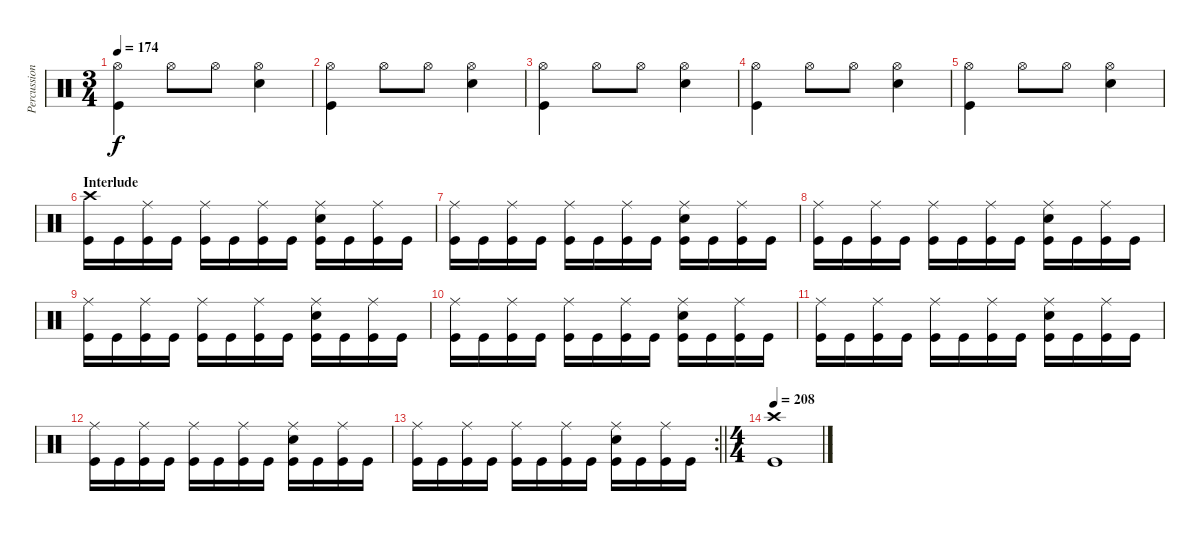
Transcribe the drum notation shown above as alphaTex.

\track ("Percussion" "Percussion") {instrument percussion}
\staff {score}
\articulation defaults
\ts (3 4)
\tempo 174
\clef neutral
\ks c
("Hi-Hat (open)" "Kick (hit)").4{dy f} "Hi-Hat (open)".8 "Hi-Hat (open)".8 ("Hi-Hat (open)" "Electric Snare (hit)").4 |
("Hi-Hat (open)" "Kick (hit)").4 "Hi-Hat (open)".8 "Hi-Hat (open)".8 ("Hi-Hat (open)" "Electric Snare (hit)").4 |
("Hi-Hat (open)" "Kick (hit)").4 "Hi-Hat (open)".8 "Hi-Hat (open)".8 ("Hi-Hat (open)" "Electric Snare (hit)").4 |
("Hi-Hat (open)" "Kick (hit)").4 "Hi-Hat (open)".8 "Hi-Hat (open)".8 ("Hi-Hat (open)" "Electric Snare (hit)").4 |
("Hi-Hat (open)" "Kick (hit)").4 "Hi-Hat (open)".8 "Hi-Hat (open)".8 ("Hi-Hat (open)" "Electric Snare (hit)").4 |
\section ("" "Interlude")
("Crash high (hit)" "Kick (hit)").16 "Kick (hit)".16 ("Ride (middle)" "Kick (hit)").16 "Kick (hit)".16 ("Ride (middle)" "Kick (hit)").16 "Kick (hit)".16 ("Ride (middle)" "Kick (hit)").16 "Kick (hit)".16 ("Ride (middle)" "Electric Snare (hit)" "Kick (hit)").16 "Kick (hit)".16 ("Ride (middle)" "Kick (hit)").16 "Kick (hit)".16 |
("Ride (middle)" "Kick (hit)").16 "Kick (hit)".16 ("Ride (middle)" "Kick (hit)").16 "Kick (hit)".16 ("Ride (middle)" "Kick (hit)").16 "Kick (hit)".16 ("Ride (middle)" "Kick (hit)").16 "Kick (hit)".16 ("Ride (middle)" "Electric Snare (hit)" "Kick (hit)").16 "Kick (hit)".16 ("Ride (middle)" "Kick (hit)").16 "Kick (hit)".16 |
("Ride (middle)" "Kick (hit)").16 "Kick (hit)".16 ("Ride (middle)" "Kick (hit)").16 "Kick (hit)".16 ("Ride (middle)" "Kick (hit)").16 "Kick (hit)".16 ("Ride (middle)" "Kick (hit)").16 "Kick (hit)".16 ("Ride (middle)" "Electric Snare (hit)" "Kick (hit)").16 "Kick (hit)".16 ("Ride (middle)" "Kick (hit)").16 "Kick (hit)".16 |
("Ride (middle)" "Kick (hit)").16 "Kick (hit)".16 ("Ride (middle)" "Kick (hit)").16 "Kick (hit)".16 ("Ride (middle)" "Kick (hit)").16 "Kick (hit)".16 ("Ride (middle)" "Kick (hit)").16 "Kick (hit)".16 ("Ride (middle)" "Electric Snare (hit)" "Kick (hit)").16 "Kick (hit)".16 ("Ride (middle)" "Kick (hit)").16 "Kick (hit)".16 |
("Ride (middle)" "Kick (hit)").16 "Kick (hit)".16 ("Ride (middle)" "Kick (hit)").16 "Kick (hit)".16 ("Ride (middle)" "Kick (hit)").16 "Kick (hit)".16 ("Ride (middle)" "Kick (hit)").16 "Kick (hit)".16 ("Ride (middle)" "Electric Snare (hit)" "Kick (hit)").16 "Kick (hit)".16 ("Ride (middle)" "Kick (hit)").16 "Kick (hit)".16 |
("Ride (middle)" "Kick (hit)").16 "Kick (hit)".16 ("Ride (middle)" "Kick (hit)").16 "Kick (hit)".16 ("Ride (middle)" "Kick (hit)").16 "Kick (hit)".16 ("Ride (middle)" "Kick (hit)").16 "Kick (hit)".16 ("Ride (middle)" "Electric Snare (hit)" "Kick (hit)").16 "Kick (hit)".16 ("Ride (middle)" "Kick (hit)").16 "Kick (hit)".16 |
("Ride (middle)" "Kick (hit)").16 "Kick (hit)".16 ("Ride (middle)" "Kick (hit)").16 "Kick (hit)".16 ("Ride (middle)" "Kick (hit)").16 "Kick (hit)".16 ("Ride (middle)" "Kick (hit)").16 "Kick (hit)".16 ("Ride (middle)" "Electric Snare (hit)" "Kick (hit)").16 "Kick (hit)".16 ("Ride (middle)" "Kick (hit)").16 "Kick (hit)".16 |
\rc 2
\barLineRight lightlight
("Ride (middle)" "Kick (hit)").16 "Kick (hit)".16 ("Ride (middle)" "Kick (hit)").16 "Kick (hit)".16 ("Ride (middle)" "Kick (hit)").16 "Kick (hit)".16 ("Ride (middle)" "Kick (hit)").16 "Kick (hit)".16 ("Ride (middle)" "Electric Snare (hit)" "Kick (hit)").16 "Kick (hit)".16 ("Ride (middle)" "Kick (hit)").16 "Kick (hit)".16 |
\ts (4 4)
\section ("" "")
\tempo 208
("Crash high (hit)" "Kick (hit)").1
